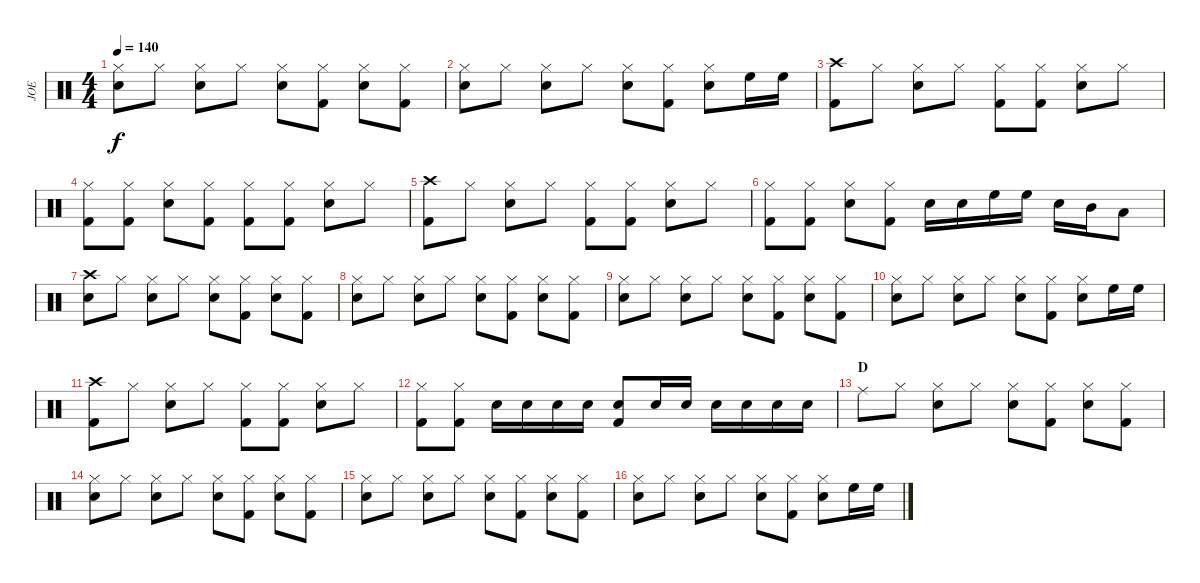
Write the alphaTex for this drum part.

\track ("JOE" "JOE") {instrument percussion}
\staff {score}
\articulation defaults
\ts (4 4)
\tempo 140
\clef neutral
\ks c
("Hi-Hat (closed)" "Snare (hit) 2").8{dy f} "Hi-Hat (closed)".8 ("Hi-Hat (closed)" "Snare (hit) 2").8 "Hi-Hat (closed)".8 ("Hi-Hat (closed)" "Snare (hit) 2").8 ("Hi-Hat (closed)" "Kick (hit) 2").8 ("Hi-Hat (closed)" "Snare (hit) 2").8 ("Hi-Hat (closed)" "Kick (hit) 2").8 |
("Hi-Hat (closed)" "Snare (hit) 2").8 "Hi-Hat (closed)".8 ("Hi-Hat (closed)" "Snare (hit) 2").8 "Hi-Hat (closed)".8 ("Hi-Hat (closed)" "Snare (hit) 2").8 ("Hi-Hat (closed)" "Kick (hit) 2").8 ("Hi-Hat (closed)" "Snare (hit) 2").8 "High Floor Tom (hit)".16 "High Floor Tom (hit)".16 |
("Crash high (hit)" "Kick (hit) 2").8 "Hi-Hat (closed)".8 ("Hi-Hat (closed)" "Snare (hit) 2").8 "Hi-Hat (closed)".8 ("Hi-Hat (closed)" "Kick (hit) 2").8 ("Hi-Hat (closed)" "Kick (hit) 2").8 ("Hi-Hat (closed)" "Snare (hit) 2").8 "Hi-Hat (closed)".8 |
("Hi-Hat (closed)" "Kick (hit) 2").8 ("Hi-Hat (closed)" "Kick (hit) 2").8 ("Hi-Hat (closed)" "Snare (hit) 2").8 ("Hi-Hat (closed)" "Kick (hit) 2").8 ("Hi-Hat (closed)" "Kick (hit) 2").8 ("Hi-Hat (closed)" "Kick (hit) 2").8 ("Hi-Hat (closed)" "Snare (hit) 2").8 "Hi-Hat (closed)".8 |
("Crash high (hit)" "Kick (hit) 2").8 "Hi-Hat (closed)".8 ("Hi-Hat (closed)" "Snare (hit) 2").8 "Hi-Hat (closed)".8 ("Hi-Hat (closed)" "Kick (hit) 2").8 ("Hi-Hat (closed)" "Kick (hit) 2").8 ("Hi-Hat (closed)" "Snare (hit) 2").8 "Hi-Hat (closed)".8 |
("Hi-Hat (closed)" "Kick (hit) 2").8 ("Hi-Hat (closed)" "Kick (hit) 2").8 ("Hi-Hat (closed)" "Snare (hit) 2").8 ("Hi-Hat (closed)" "Kick (hit) 2").8 "Snare (hit) 2".16 "Snare (hit) 2".16 "High Floor Tom (hit)".16 "High Floor Tom (hit)".16 "Snare (hit) 2".16 "Mid Tom (hit)".16 "Low Tom (hit)".8 |
("Crash high (hit)" "Snare (hit) 2").8 "Hi-Hat (closed)".8 ("Hi-Hat (closed)" "Snare (hit) 2").8 "Hi-Hat (closed)".8 ("Hi-Hat (closed)" "Snare (hit) 2").8 ("Hi-Hat (closed)" "Kick (hit) 2").8 ("Hi-Hat (closed)" "Snare (hit) 2").8 ("Hi-Hat (closed)" "Kick (hit) 2").8 |
("Hi-Hat (closed)" "Snare (hit) 2").8 "Hi-Hat (closed)".8 ("Hi-Hat (closed)" "Snare (hit) 2").8 "Hi-Hat (closed)".8 ("Hi-Hat (closed)" "Snare (hit) 2").8 ("Hi-Hat (closed)" "Kick (hit) 2").8 ("Hi-Hat (closed)" "Snare (hit) 2").8 ("Hi-Hat (closed)" "Kick (hit) 2").8 |
("Hi-Hat (closed)" "Snare (hit) 2").8 "Hi-Hat (closed)".8 ("Hi-Hat (closed)" "Snare (hit) 2").8 "Hi-Hat (closed)".8 ("Hi-Hat (closed)" "Snare (hit) 2").8 ("Hi-Hat (closed)" "Kick (hit) 2").8 ("Hi-Hat (closed)" "Snare (hit) 2").8 ("Hi-Hat (closed)" "Kick (hit) 2").8 |
("Hi-Hat (closed)" "Snare (hit) 2").8 "Hi-Hat (closed)".8 ("Hi-Hat (closed)" "Snare (hit) 2").8 "Hi-Hat (closed)".8 ("Hi-Hat (closed)" "Snare (hit) 2").8 ("Hi-Hat (closed)" "Kick (hit) 2").8 ("Hi-Hat (closed)" "Snare (hit) 2").8 "High Floor Tom (hit)".16 "High Floor Tom (hit)".16 |
("Crash high (hit)" "Kick (hit) 2").8 "Hi-Hat (closed)".8 ("Hi-Hat (closed)" "Snare (hit) 2").8 "Hi-Hat (closed)".8 ("Hi-Hat (closed)" "Kick (hit) 2").8 ("Hi-Hat (closed)" "Kick (hit) 2").8 ("Hi-Hat (closed)" "Snare (hit) 2").8 "Hi-Hat (closed)".8 |
("Hi-Hat (closed)" "Kick (hit) 2").8 ("Hi-Hat (closed)" "Kick (hit) 2").8 "Snare (hit) 2".16 "Snare (hit) 2".16 "Snare (hit) 2".16 "Snare (hit) 2".16 ("Snare (hit) 2" "Kick (hit) 2").8 "Snare (hit) 2".16 "Snare (hit) 2".16 "Snare (hit) 2".16 "Snare (hit) 2".16 "Snare (hit) 2".16 "Snare (hit) 2".16 |
\section ("" "D")
"Ride (middle)".8 "Hi-Hat (closed)".8 ("Hi-Hat (closed)" "Snare (hit) 2").8 "Hi-Hat (closed)".8 ("Hi-Hat (closed)" "Snare (hit) 2").8 ("Hi-Hat (closed)" "Kick (hit) 2").8 ("Hi-Hat (closed)" "Snare (hit) 2").8 ("Hi-Hat (closed)" "Kick (hit) 2").8 |
("Hi-Hat (closed)" "Snare (hit) 2").8 "Hi-Hat (closed)".8 ("Hi-Hat (closed)" "Snare (hit) 2").8 "Hi-Hat (closed)".8 ("Hi-Hat (closed)" "Snare (hit) 2").8 ("Hi-Hat (closed)" "Kick (hit) 2").8 ("Hi-Hat (closed)" "Snare (hit) 2").8 ("Hi-Hat (closed)" "Kick (hit) 2").8 |
("Hi-Hat (closed)" "Snare (hit) 2").8 "Hi-Hat (closed)".8 ("Hi-Hat (closed)" "Snare (hit) 2").8 "Hi-Hat (closed)".8 ("Hi-Hat (closed)" "Snare (hit) 2").8 ("Hi-Hat (closed)" "Kick (hit) 2").8 ("Hi-Hat (closed)" "Snare (hit) 2").8 ("Hi-Hat (closed)" "Kick (hit) 2").8 |
("Hi-Hat (closed)" "Snare (hit) 2").8 "Hi-Hat (closed)".8 ("Hi-Hat (closed)" "Snare (hit) 2").8 "Hi-Hat (closed)".8 ("Hi-Hat (closed)" "Snare (hit) 2").8 ("Hi-Hat (closed)" "Kick (hit) 2").8 ("Hi-Hat (closed)" "Snare (hit) 2").8 "High Floor Tom (hit)".16 "High Floor Tom (hit)".16
